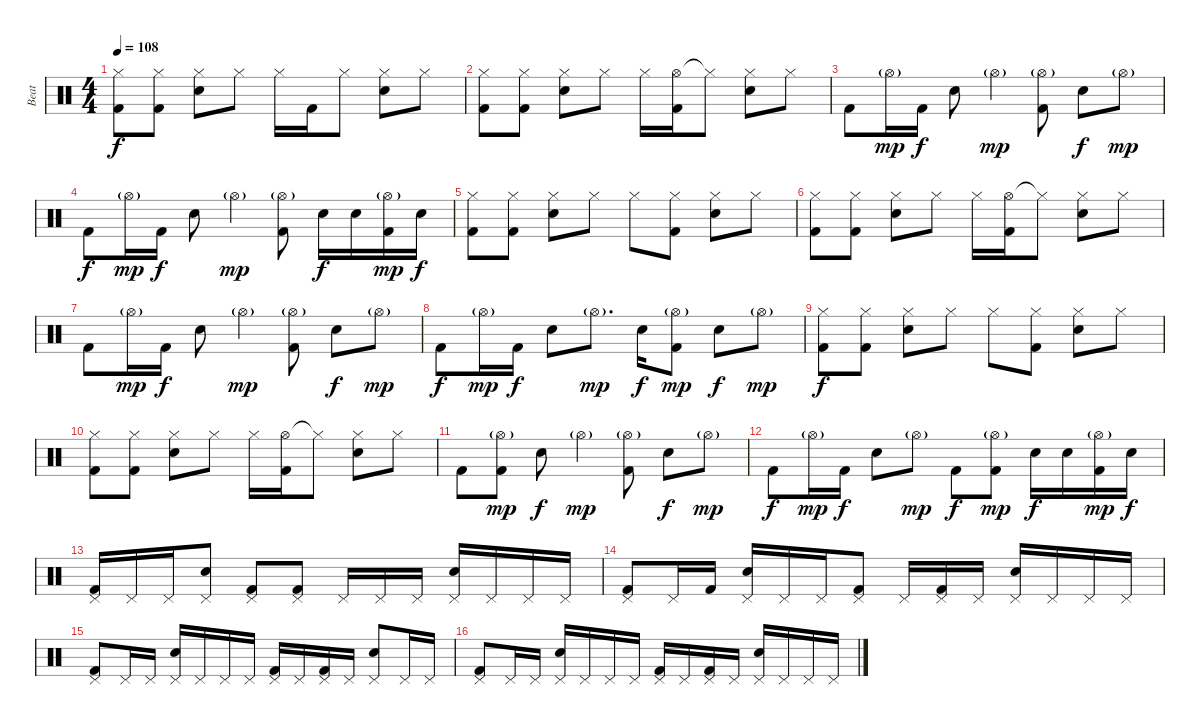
\track ("Beat" "Beat") {instrument percussion}
\staff {score}
\articulation defaults
\ts (4 4)
\tempo 108
\clef neutral
\ks c
("Hi-Hat (closed)" "Kick (hit) 2").8{dy f} ("Hi-Hat (closed)" "Kick (hit) 2").8 ("Hi-Hat (closed)" "Snare (hit) 2").8 "Hi-Hat (closed)".8 "Hi-Hat (closed)".16 "Kick (hit) 2".16 "Hi-Hat (closed)".8 ("Hi-Hat (closed)" "Snare (hit) 2").8 "Hi-Hat (closed)".8 |
("Hi-Hat (closed)" "Kick (hit) 2").8 ("Hi-Hat (closed)" "Kick (hit) 2").8 ("Hi-Hat (closed)" "Snare (hit) 2").8 "Hi-Hat (closed)".8 "Hi-Hat (closed)".16 ("Hi-Hat (open)" "Kick (hit) 2").16 "Hi-Hat (closed)"{t}.8 ("Hi-Hat (closed)" "Snare (hit) 2").8 "Hi-Hat (closed)".8 |
"Kick (hit) 2".8 "Hi-Hat (open)"{g}.16{dy mp} "Kick (hit) 2".16{dy f} "Snare (hit) 2".8 "Hi-Hat (open)"{g}.4{dy mp} ("Hi-Hat (open)"{g} "Kick (hit) 2").8 "Snare (hit) 2".8{dy f} "Hi-Hat (open)"{g}.8{dy mp} |
"Kick (hit) 2".8{dy f} "Hi-Hat (open)"{g}.16{dy mp} "Kick (hit) 2".16{dy f} "Snare (hit) 2".8 "Hi-Hat (open)"{g}.4{dy mp} ("Hi-Hat (open)"{g} "Kick (hit) 2").8 "Snare (hit) 2".16{dy f} "Snare (hit) 2".16 ("Hi-Hat (open)"{g} "Kick (hit) 2").16{dy mp} "Snare (hit) 2".16{dy f} |
("Hi-Hat (closed)" "Kick (hit) 2").8 ("Hi-Hat (closed)" "Kick (hit) 2").8 ("Hi-Hat (closed)" "Snare (hit) 2").8 "Hi-Hat (closed)".8 "Hi-Hat (closed)".8 ("Hi-Hat (closed)" "Kick (hit) 2").8 ("Hi-Hat (closed)" "Snare (hit) 2").8 "Hi-Hat (closed)".8 |
("Hi-Hat (closed)" "Kick (hit) 2").8 ("Hi-Hat (closed)" "Kick (hit) 2").8 ("Hi-Hat (closed)" "Snare (hit) 2").8 "Hi-Hat (closed)".8 "Hi-Hat (closed)".16 ("Hi-Hat (open)" "Kick (hit) 2").16 "Hi-Hat (closed)"{t}.8 ("Hi-Hat (closed)" "Snare (hit) 2").8 "Hi-Hat (closed)".8 |
"Kick (hit) 2".8 "Hi-Hat (open)"{g}.16{dy mp} "Kick (hit) 2".16{dy f} "Snare (hit) 2".8 "Hi-Hat (open)"{g}.4{dy mp} ("Hi-Hat (open)"{g} "Kick (hit) 2").8 "Snare (hit) 2".8{dy f} "Hi-Hat (open)"{g}.8{dy mp} |
"Kick (hit) 2".8{dy f} "Hi-Hat (open)"{g}.16{dy mp} "Kick (hit) 2".16{dy f} "Snare (hit) 2".8 "Hi-Hat (open)"{g}.8{d dy mp} "Snare (hit) 2".16{dy f} ("Hi-Hat (open)"{g} "Kick (hit) 2").8{dy mp} "Snare (hit) 2".8{dy f} "Hi-Hat (open)"{g}.8{dy mp} |
("Hi-Hat (closed)" "Kick (hit) 2").8{dy f} ("Hi-Hat (closed)" "Kick (hit) 2").8 ("Hi-Hat (closed)" "Snare (hit) 2").8 "Hi-Hat (closed)".8 "Hi-Hat (closed)".8 ("Hi-Hat (closed)" "Kick (hit) 2").8 ("Hi-Hat (closed)" "Snare (hit) 2").8 "Hi-Hat (closed)".8 |
("Hi-Hat (closed)" "Kick (hit) 2").8 ("Hi-Hat (closed)" "Kick (hit) 2").8 ("Hi-Hat (closed)" "Snare (hit) 2").8 "Hi-Hat (closed)".8 "Hi-Hat (closed)".16 ("Hi-Hat (open)" "Kick (hit) 2").16 "Hi-Hat (closed)"{t}.8 ("Hi-Hat (closed)" "Snare (hit) 2").8 "Hi-Hat (closed)".8 |
"Kick (hit) 2".8 ("Hi-Hat (open)"{g} "Kick (hit) 2").8{dy mp} "Snare (hit) 2".8{dy f} "Hi-Hat (open)"{g}.4{dy mp} ("Hi-Hat (open)"{g} "Kick (hit) 2").8 "Snare (hit) 2".8{dy f} "Hi-Hat (open)"{g}.8{dy mp} |
"Kick (hit) 2".8{dy f} "Hi-Hat (open)"{g}.16{dy mp} "Kick (hit) 2".16{dy f} "Snare (hit) 2".8 "Hi-Hat (open)"{g}.8{dy mp} "Kick (hit) 2".8{dy f} ("Hi-Hat (open)"{g} "Kick (hit) 2").8{dy mp} "Snare (hit) 2".16{dy f} "Snare (hit) 2".16 ("Hi-Hat (open)"{g} "Kick (hit) 2").16{dy mp} "Snare (hit) 2".16{dy f} |
("Pedal Hi-Hat (hit)" "Kick (hit) 2").16 "Pedal Hi-Hat (hit)".16 "Pedal Hi-Hat (hit)".16 ("Pedal Hi-Hat (hit)" "Snare (hit) 2").8 ("Pedal Hi-Hat (hit)" "Kick (hit) 2").8 ("Pedal Hi-Hat (hit)" "Kick (hit) 2").8 "Pedal Hi-Hat (hit)".16 "Pedal Hi-Hat (hit)".16 "Pedal Hi-Hat (hit)".16 ("Pedal Hi-Hat (hit)" "Snare (hit) 2").16 "Pedal Hi-Hat (hit)".16 "Pedal Hi-Hat (hit)".16 "Pedal Hi-Hat (hit)".16 |
("Pedal Hi-Hat (hit)" "Kick (hit) 2").8 "Pedal Hi-Hat (hit)".16 "Kick (hit) 2".16 ("Pedal Hi-Hat (hit)" "Snare (hit) 2").16 "Pedal Hi-Hat (hit)".16 "Pedal Hi-Hat (hit)".16 ("Pedal Hi-Hat (hit)" "Kick (hit) 2").8 "Pedal Hi-Hat (hit)".16 ("Pedal Hi-Hat (hit)" "Kick (hit) 2").16 "Pedal Hi-Hat (hit)".16 ("Pedal Hi-Hat (hit)" "Snare (hit) 2").16 "Pedal Hi-Hat (hit)".16 "Pedal Hi-Hat (hit)".16 "Pedal Hi-Hat (hit)".16 |
("Pedal Hi-Hat (hit)" "Kick (hit) 2").8 "Pedal Hi-Hat (hit)".16 "Pedal Hi-Hat (hit)".16 ("Pedal Hi-Hat (hit)" "Snare (hit) 2").16 "Pedal Hi-Hat (hit)".16 "Pedal Hi-Hat (hit)".16 "Pedal Hi-Hat (hit)".16 ("Pedal Hi-Hat (hit)" "Kick (hit) 2").16 "Pedal Hi-Hat (hit)".16 ("Pedal Hi-Hat (hit)" "Kick (hit) 2").16 "Pedal Hi-Hat (hit)".16 ("Pedal Hi-Hat (hit)" "Snare (hit) 2").8 "Pedal Hi-Hat (hit)".16 "Pedal Hi-Hat (hit)".16 |
("Pedal Hi-Hat (hit)" "Kick (hit) 2").8 "Pedal Hi-Hat (hit)".16 "Pedal Hi-Hat (hit)".16 ("Pedal Hi-Hat (hit)" "Snare (hit) 2").16 "Pedal Hi-Hat (hit)".16 "Pedal Hi-Hat (hit)".16 "Pedal Hi-Hat (hit)".16 ("Pedal Hi-Hat (hit)" "Kick (hit) 2").16 "Pedal Hi-Hat (hit)".16 ("Pedal Hi-Hat (hit)" "Kick (hit) 2").16 "Pedal Hi-Hat (hit)".16 ("Pedal Hi-Hat (hit)" "Snare (hit) 2").16 "Pedal Hi-Hat (hit)".16 "Pedal Hi-Hat (hit)".16 "Pedal Hi-Hat (hit)".16
